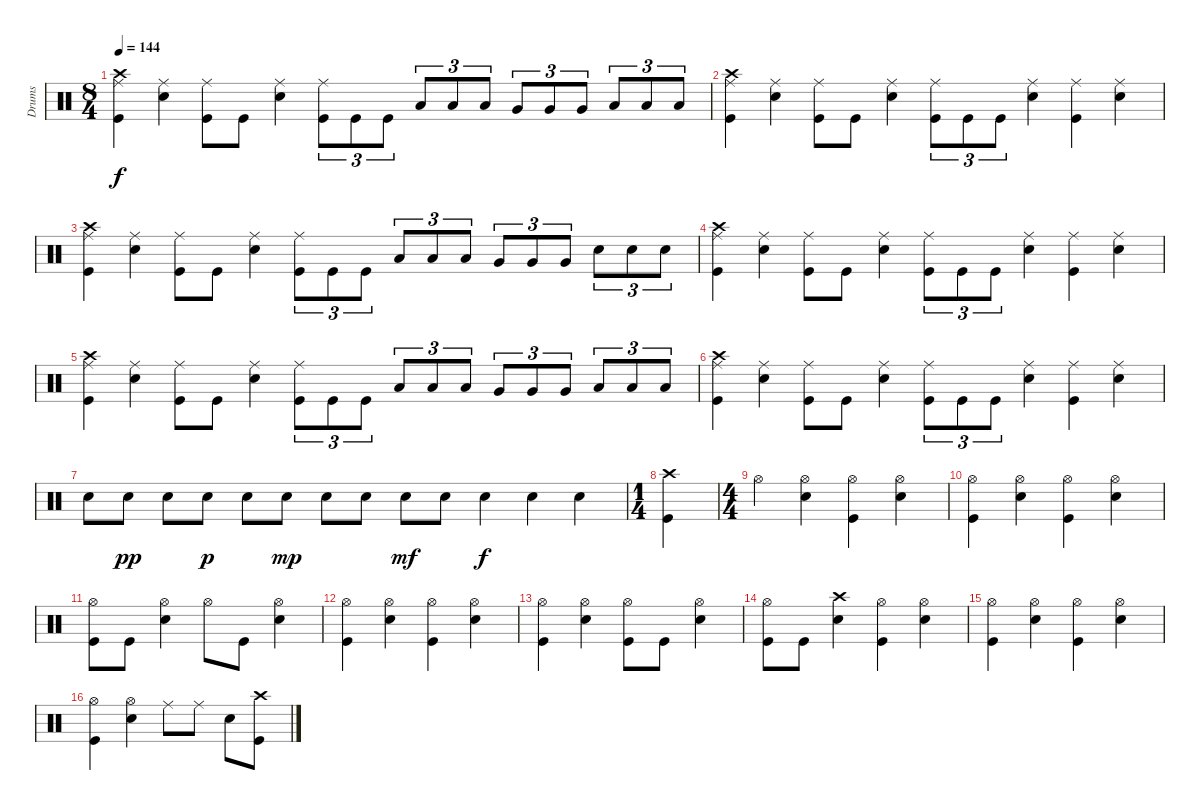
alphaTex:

\track ("Drums" "Drums") {instrument percussion}
\staff {score}
\articulation defaults
\ts (8 4)
\tempo 144
\clef neutral
\ks c
("Crash high (hit)" "Ride (middle)" "Kick (hit)").4{dy f} ("Ride (middle)" "Snare (hit) 2").4 ("Ride (middle)" "Kick (hit)").8 "Kick (hit)".8 ("Ride (middle)" "Snare (hit) 2").4 ("Ride (middle)" "Kick (hit)").8{tu (3 2)} "Kick (hit)".8{tu (3 2)} "Kick (hit)".8{tu (3 2)} "Low Tom (hit)".8{tu (3 2)} "Low Tom (hit)".8{tu (3 2)} "Low Tom (hit)".8{tu (3 2)} "Very Low Tom (hit)".8{tu (3 2)} "Very Low Tom (hit)".8{tu (3 2)} "Very Low Tom (hit)".8{tu (3 2)} "Low Floor Tom (hit)".8{tu (3 2)} "Low Floor Tom (hit)".8{tu (3 2)} "Low Floor Tom (hit)".8{tu (3 2)} |
("Crash high (hit)" "Ride (middle)" "Kick (hit)").4 ("Ride (middle)" "Snare (hit) 2").4 ("Ride (middle)" "Kick (hit)").8 "Kick (hit)".8 ("Ride (middle)" "Snare (hit) 2").4 ("Ride (middle)" "Kick (hit)").8{tu (3 2)} "Kick (hit)".8{tu (3 2)} "Kick (hit)".8{tu (3 2)} ("Ride (middle)" "Snare (hit) 2").4 ("Ride (middle)" "Kick (hit)").4 ("Ride (middle)" "Snare (hit) 2").4 |
("Crash high (hit)" "Ride (middle)" "Kick (hit)").4 ("Ride (middle)" "Snare (hit) 2").4 ("Ride (middle)" "Kick (hit)").8 "Kick (hit)".8 ("Ride (middle)" "Snare (hit) 2").4 ("Ride (middle)" "Kick (hit)").8{tu (3 2)} "Kick (hit)".8{tu (3 2)} "Kick (hit)".8{tu (3 2)} "Low Tom (hit)".8{tu (3 2)} "Low Tom (hit)".8{tu (3 2)} "Low Tom (hit)".8{tu (3 2)} "Very Low Tom (hit)".8{tu (3 2)} "Very Low Tom (hit)".8{tu (3 2)} "Very Low Tom (hit)".8{tu (3 2)} "Snare (hit) 2".8{tu (3 2)} "Snare (hit) 2".8{tu (3 2)} "Snare (hit) 2".8{tu (3 2)} |
("Crash high (hit)" "Ride (middle)" "Kick (hit)").4 ("Ride (middle)" "Snare (hit) 2").4 ("Ride (middle)" "Kick (hit)").8 "Kick (hit)".8 ("Ride (middle)" "Snare (hit) 2").4 ("Ride (middle)" "Kick (hit)").8{tu (3 2)} "Kick (hit)".8{tu (3 2)} "Kick (hit)".8{tu (3 2)} ("Ride (middle)" "Snare (hit) 2").4 ("Ride (middle)" "Kick (hit)").4 ("Ride (middle)" "Snare (hit) 2").4 |
("Crash high (hit)" "Ride (middle)" "Kick (hit)").4 ("Ride (middle)" "Snare (hit) 2").4 ("Ride (middle)" "Kick (hit)").8 "Kick (hit)".8 ("Ride (middle)" "Snare (hit) 2").4 ("Ride (middle)" "Kick (hit)").8{tu (3 2)} "Kick (hit)".8{tu (3 2)} "Kick (hit)".8{tu (3 2)} "Low Tom (hit)".8{tu (3 2)} "Low Tom (hit)".8{tu (3 2)} "Low Tom (hit)".8{tu (3 2)} "Very Low Tom (hit)".8{tu (3 2)} "Very Low Tom (hit)".8{tu (3 2)} "Very Low Tom (hit)".8{tu (3 2)} "Low Floor Tom (hit)".8{tu (3 2)} "Low Floor Tom (hit)".8{tu (3 2)} "Low Floor Tom (hit)".8{tu (3 2)} |
("Crash high (hit)" "Ride (middle)" "Kick (hit)").4 ("Ride (middle)" "Snare (hit) 2").4 ("Ride (middle)" "Kick (hit)").8 "Kick (hit)".8 ("Ride (middle)" "Snare (hit) 2").4 ("Ride (middle)" "Kick (hit)").8{tu (3 2)} "Kick (hit)".8{tu (3 2)} "Kick (hit)".8{tu (3 2)} ("Ride (middle)" "Snare (hit) 2").4 ("Ride (middle)" "Kick (hit)").4 ("Ride (middle)" "Snare (hit) 2").4 |
"Snare (hit) 2".8 "Snare (hit) 2".8{dy pp} "Snare (hit) 2".8 "Snare (hit) 2".8{dy p} "Snare (hit) 2".8 "Snare (hit) 2".8{dy mp} "Snare (hit) 2".8 "Snare (hit) 2".8 "Snare (hit) 2".8{dy mf} "Snare (hit) 2".8 "Snare (hit) 2".4{dy f} "Snare (hit) 2".4 "Snare (hit) 2".4 |
\ts (1 4)
("Crash high (hit)" "Kick (hit)").4 |
\ts (4 4)
"Hi-Hat (open)".4 ("Hi-Hat (open)" "Snare (hit) 2").4 ("Hi-Hat (open)" "Kick (hit)").4 ("Hi-Hat (open)" "Snare (hit) 2").4 |
("Hi-Hat (open)" "Kick (hit)").4 ("Hi-Hat (open)" "Snare (hit) 2").4 ("Hi-Hat (open)" "Kick (hit)").4 ("Hi-Hat (open)" "Snare (hit) 2").4 |
("Hi-Hat (open)" "Kick (hit)").8 "Kick (hit)".8 ("Hi-Hat (open)" "Snare (hit) 2").4 "Hi-Hat (open)".8 "Kick (hit)".8 ("Hi-Hat (open)" "Snare (hit) 2").4 |
("Hi-Hat (open)" "Kick (hit)").4 ("Hi-Hat (open)" "Snare (hit) 2").4 ("Hi-Hat (open)" "Kick (hit)").4 ("Hi-Hat (open)" "Snare (hit) 2").4 |
("Hi-Hat (open)" "Kick (hit)").4 ("Hi-Hat (open)" "Snare (hit) 2").4 ("Hi-Hat (open)" "Kick (hit)").8 "Kick (hit)".8 ("Hi-Hat (open)" "Snare (hit) 2").4 |
("Hi-Hat (open)" "Kick (hit)").8 "Kick (hit)".8 ("Crash high (hit)" "Snare (hit) 2").4 ("Hi-Hat (open)" "Kick (hit)").4 ("Hi-Hat (open)" "Snare (hit) 2").4 |
("Hi-Hat (open)" "Kick (hit)").4 ("Hi-Hat (open)" "Snare (hit) 2").4 ("Hi-Hat (open)" "Kick (hit)").4 ("Hi-Hat (open)" "Snare (hit) 2").4 |
("Hi-Hat (open)" "Kick (hit)").4 ("Hi-Hat (open)" "Snare (hit) 2").4 "Ride (middle)".8 "Ride (middle)".8 "Snare (hit) 2".8 ("Crash high (hit)" "Kick (hit)").8
